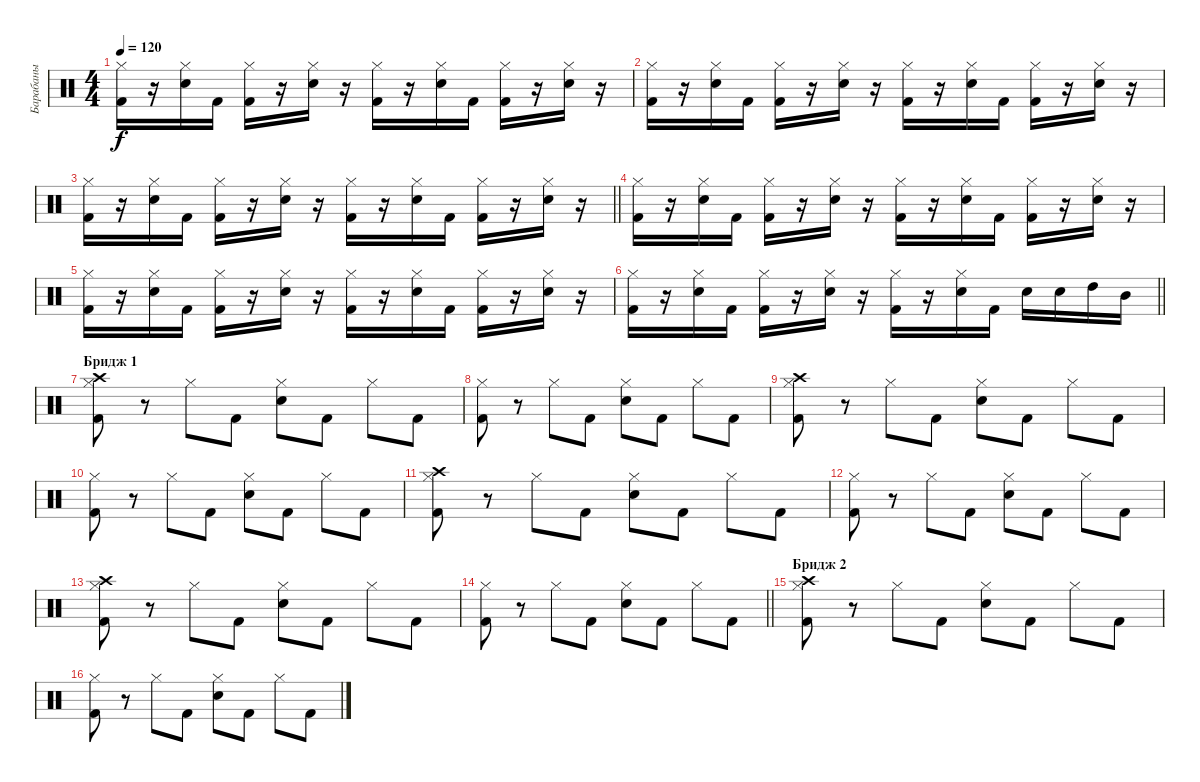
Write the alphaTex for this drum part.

\track ("Барабаны" "Барабаны") {instrument percussion}
\staff {score}
\articulation defaults
\ts (4 4)
\tempo 120
\clef neutral
\ks c
("Hi-Hat (closed)" "Kick (hit) 2").16{dy f} r.16 ("Hi-Hat (closed)" "Electric Snare (hit)").16 "Kick (hit) 2".16 ("Hi-Hat (closed)" "Kick (hit) 2").16 r.16 ("Hi-Hat (closed)" "Electric Snare (hit)").16 r.16 ("Hi-Hat (closed)" "Kick (hit) 2").16 r.16 ("Hi-Hat (closed)" "Electric Snare (hit)").16 "Kick (hit) 2".16 ("Hi-Hat (closed)" "Kick (hit) 2").16 r.16 ("Hi-Hat (closed)" "Electric Snare (hit)").16 r.16 |
("Hi-Hat (closed)" "Kick (hit) 2").16 r.16 ("Hi-Hat (closed)" "Electric Snare (hit)").16 "Kick (hit) 2".16 ("Hi-Hat (closed)" "Kick (hit) 2").16 r.16 ("Hi-Hat (closed)" "Electric Snare (hit)").16 r.16 ("Hi-Hat (closed)" "Kick (hit) 2").16 r.16 ("Hi-Hat (closed)" "Electric Snare (hit)").16 "Kick (hit) 2".16 ("Hi-Hat (closed)" "Kick (hit) 2").16 r.16 ("Hi-Hat (closed)" "Electric Snare (hit)").16 r.16 |
\barLineRight lightlight
("Hi-Hat (closed)" "Kick (hit) 2").16 r.16 ("Hi-Hat (closed)" "Electric Snare (hit)").16 "Kick (hit) 2".16 ("Hi-Hat (closed)" "Kick (hit) 2").16 r.16 ("Hi-Hat (closed)" "Electric Snare (hit)").16 r.16 ("Hi-Hat (closed)" "Kick (hit) 2").16 r.16 ("Hi-Hat (closed)" "Electric Snare (hit)").16 "Kick (hit) 2".16 ("Hi-Hat (closed)" "Kick (hit) 2").16 r.16 ("Hi-Hat (closed)" "Electric Snare (hit)").16 r.16 |
("Hi-Hat (closed)" "Kick (hit) 2").16 r.16 ("Hi-Hat (closed)" "Electric Snare (hit)").16 "Kick (hit) 2".16 ("Hi-Hat (closed)" "Kick (hit) 2").16 r.16 ("Hi-Hat (closed)" "Electric Snare (hit)").16 r.16 ("Hi-Hat (closed)" "Kick (hit) 2").16 r.16 ("Hi-Hat (closed)" "Electric Snare (hit)").16 "Kick (hit) 2".16 ("Hi-Hat (closed)" "Kick (hit) 2").16 r.16 ("Hi-Hat (closed)" "Electric Snare (hit)").16 r.16 |
("Hi-Hat (closed)" "Kick (hit) 2").16 r.16 ("Hi-Hat (closed)" "Electric Snare (hit)").16 "Kick (hit) 2".16 ("Hi-Hat (closed)" "Kick (hit) 2").16 r.16 ("Hi-Hat (closed)" "Electric Snare (hit)").16 r.16 ("Hi-Hat (closed)" "Kick (hit) 2").16 r.16 ("Hi-Hat (closed)" "Electric Snare (hit)").16 "Kick (hit) 2".16 ("Hi-Hat (closed)" "Kick (hit) 2").16 r.16 ("Hi-Hat (closed)" "Electric Snare (hit)").16 r.16 |
\barLineRight lightlight
("Hi-Hat (closed)" "Kick (hit) 2").16 r.16 ("Hi-Hat (closed)" "Electric Snare (hit)").16 "Kick (hit) 2".16 ("Hi-Hat (closed)" "Kick (hit) 2").16 r.16 ("Hi-Hat (closed)" "Electric Snare (hit)").16 r.16 ("Hi-Hat (closed)" "Kick (hit) 2").16 r.16 ("Hi-Hat (closed)" "Electric Snare (hit)").16 "Kick (hit) 2".16 "Electric Snare (hit)".16 "Electric Snare (hit)".16 "High Tom (hit)".16 "Mid Tom (hit)".16 |
\section ("" "Бридж 1")
("Hi-Hat (closed)" "Kick (hit) 2" "Crash high (hit)").8 r.8 "Hi-Hat (closed)".8 "Kick (hit) 2".8 ("Hi-Hat (closed)" "Electric Snare (hit)").8 "Kick (hit) 2".8 "Hi-Hat (closed)".8 "Kick (hit) 2".8 |
("Hi-Hat (closed)" "Kick (hit) 2").8 r.8 "Hi-Hat (closed)".8 "Kick (hit) 2".8 ("Hi-Hat (closed)" "Electric Snare (hit)").8 "Kick (hit) 2".8 "Hi-Hat (closed)".8 "Kick (hit) 2".8 |
("Hi-Hat (closed)" "Kick (hit) 2" "Crash high (hit)").8 r.8 "Hi-Hat (closed)".8 "Kick (hit) 2".8 ("Hi-Hat (closed)" "Electric Snare (hit)").8 "Kick (hit) 2".8 "Hi-Hat (closed)".8 "Kick (hit) 2".8 |
("Hi-Hat (closed)" "Kick (hit) 2").8 r.8 "Hi-Hat (closed)".8 "Kick (hit) 2".8 ("Hi-Hat (closed)" "Electric Snare (hit)").8 "Kick (hit) 2".8 "Hi-Hat (closed)".8 "Kick (hit) 2".8 |
("Hi-Hat (closed)" "Kick (hit) 2" "Crash high (hit)").8 r.8 "Hi-Hat (closed)".8 "Kick (hit) 2".8 ("Hi-Hat (closed)" "Electric Snare (hit)").8 "Kick (hit) 2".8 "Hi-Hat (closed)".8 "Kick (hit) 2".8 |
("Hi-Hat (closed)" "Kick (hit) 2").8 r.8 "Hi-Hat (closed)".8 "Kick (hit) 2".8 ("Hi-Hat (closed)" "Electric Snare (hit)").8 "Kick (hit) 2".8 "Hi-Hat (closed)".8 "Kick (hit) 2".8 |
("Hi-Hat (closed)" "Kick (hit) 2" "Crash high (hit)").8 r.8 "Hi-Hat (closed)".8 "Kick (hit) 2".8 ("Hi-Hat (closed)" "Electric Snare (hit)").8 "Kick (hit) 2".8 "Hi-Hat (closed)".8 "Kick (hit) 2".8 |
\barLineRight lightlight
("Hi-Hat (closed)" "Kick (hit) 2").8 r.8 "Hi-Hat (closed)".8 "Kick (hit) 2".8 ("Hi-Hat (closed)" "Electric Snare (hit)").8 "Kick (hit) 2".8 "Hi-Hat (closed)".8 "Kick (hit) 2".8 |
\section ("" "Бридж 2")
("Hi-Hat (closed)" "Kick (hit) 2" "Crash high (hit)").8 r.8 "Hi-Hat (closed)".8 "Kick (hit) 2".8 ("Hi-Hat (closed)" "Electric Snare (hit)").8 "Kick (hit) 2".8 "Hi-Hat (closed)".8 "Kick (hit) 2".8 |
("Hi-Hat (closed)" "Kick (hit) 2").8 r.8 "Hi-Hat (closed)".8 "Kick (hit) 2".8 ("Hi-Hat (closed)" "Electric Snare (hit)").8 "Kick (hit) 2".8 "Hi-Hat (closed)".8 "Kick (hit) 2".8
